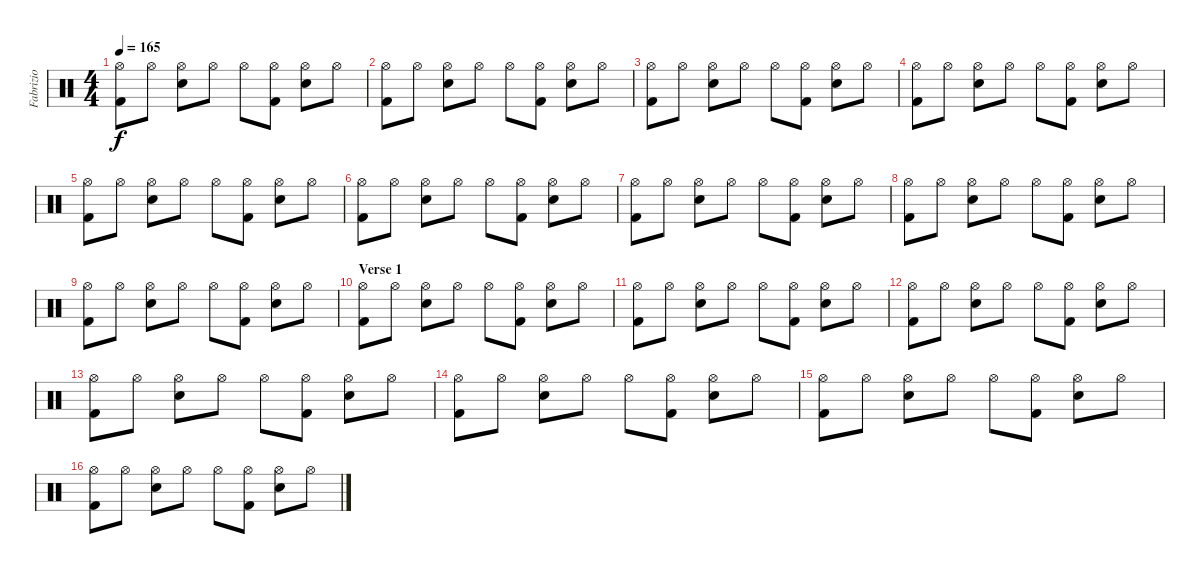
\track ("Fabrizio" "Fabrizio") {instrument percussion}
\staff {score}
\articulation defaults
\ts (4 4)
\tempo 165
\clef neutral
\ks c
("Kick (hit) 2" "Hi-Hat (open)").8{dy f} "Hi-Hat (open)".8 ("Snare (hit) 2" "Hi-Hat (open)").8 "Hi-Hat (open)".8 "Hi-Hat (open)".8 ("Kick (hit) 2" "Hi-Hat (open)").8 ("Snare (hit) 2" "Hi-Hat (open)").8 "Hi-Hat (open)".8 |
("Kick (hit) 2" "Hi-Hat (open)").8 "Hi-Hat (open)".8 ("Hi-Hat (open)" "Snare (hit) 2").8 "Hi-Hat (open)".8 "Hi-Hat (open)".8 ("Kick (hit) 2" "Hi-Hat (open)").8 ("Hi-Hat (open)" "Snare (hit) 2").8 "Hi-Hat (open)".8 |
("Kick (hit) 2" "Hi-Hat (open)").8 "Hi-Hat (open)".8 ("Snare (hit) 2" "Hi-Hat (open)").8 "Hi-Hat (open)".8 "Hi-Hat (open)".8 ("Kick (hit) 2" "Hi-Hat (open)").8 ("Snare (hit) 2" "Hi-Hat (open)").8 "Hi-Hat (open)".8 |
("Kick (hit) 2" "Hi-Hat (open)").8 "Hi-Hat (open)".8 ("Snare (hit) 2" "Hi-Hat (open)").8 "Hi-Hat (open)".8 "Hi-Hat (open)".8 ("Kick (hit) 2" "Hi-Hat (open)").8 ("Snare (hit) 2" "Hi-Hat (open)").8 "Hi-Hat (open)".8 |
("Kick (hit) 2" "Hi-Hat (open)").8 "Hi-Hat (open)".8 ("Snare (hit) 2" "Hi-Hat (open)").8 "Hi-Hat (open)".8 "Hi-Hat (open)".8 ("Kick (hit) 2" "Hi-Hat (open)").8 ("Snare (hit) 2" "Hi-Hat (open)").8 "Hi-Hat (open)".8 |
("Kick (hit) 2" "Hi-Hat (open)").8 "Hi-Hat (open)".8 ("Snare (hit) 2" "Hi-Hat (open)").8 "Hi-Hat (open)".8 "Hi-Hat (open)".8 ("Kick (hit) 2" "Hi-Hat (open)").8 ("Snare (hit) 2" "Hi-Hat (open)").8 "Hi-Hat (open)".8 |
("Kick (hit) 2" "Hi-Hat (open)").8 "Hi-Hat (open)".8 ("Snare (hit) 2" "Hi-Hat (open)").8 "Hi-Hat (open)".8 "Hi-Hat (open)".8 ("Kick (hit) 2" "Hi-Hat (open)").8 ("Snare (hit) 2" "Hi-Hat (open)").8 "Hi-Hat (open)".8 |
("Kick (hit) 2" "Hi-Hat (open)").8 "Hi-Hat (open)".8 ("Snare (hit) 2" "Hi-Hat (open)").8 "Hi-Hat (open)".8 "Hi-Hat (open)".8 ("Kick (hit) 2" "Hi-Hat (open)").8 ("Snare (hit) 2" "Hi-Hat (open)").8 "Hi-Hat (open)".8 |
("Kick (hit) 2" "Hi-Hat (open)").8 "Hi-Hat (open)".8 ("Snare (hit) 2" "Hi-Hat (open)").8 "Hi-Hat (open)".8 "Hi-Hat (open)".8 ("Kick (hit) 2" "Hi-Hat (open)").8 ("Snare (hit) 2" "Hi-Hat (open)").8 "Hi-Hat (open)".8 |
\section ("" "Verse 1")
("Kick (hit) 2" "Hi-Hat (open)").8 "Hi-Hat (open)".8 ("Snare (hit) 2" "Hi-Hat (open)").8 "Hi-Hat (open)".8 "Hi-Hat (open)".8 ("Kick (hit) 2" "Hi-Hat (open)").8 ("Snare (hit) 2" "Hi-Hat (open)").8 "Hi-Hat (open)".8 |
("Kick (hit) 2" "Hi-Hat (open)").8 "Hi-Hat (open)".8 ("Snare (hit) 2" "Hi-Hat (open)").8 "Hi-Hat (open)".8 "Hi-Hat (open)".8 ("Kick (hit) 2" "Hi-Hat (open)").8 ("Snare (hit) 2" "Hi-Hat (open)").8 "Hi-Hat (open)".8 |
("Kick (hit) 2" "Hi-Hat (open)").8 "Hi-Hat (open)".8 ("Snare (hit) 2" "Hi-Hat (open)").8 "Hi-Hat (open)".8 "Hi-Hat (open)".8 ("Kick (hit) 2" "Hi-Hat (open)").8 ("Snare (hit) 2" "Hi-Hat (open)").8 "Hi-Hat (open)".8 |
("Kick (hit) 2" "Hi-Hat (open)").8 "Hi-Hat (open)".8 ("Snare (hit) 2" "Hi-Hat (open)").8 "Hi-Hat (open)".8 "Hi-Hat (open)".8 ("Kick (hit) 2" "Hi-Hat (open)").8 ("Snare (hit) 2" "Hi-Hat (open)").8 "Hi-Hat (open)".8 |
("Kick (hit) 2" "Hi-Hat (open)").8 "Hi-Hat (open)".8 ("Snare (hit) 2" "Hi-Hat (open)").8 "Hi-Hat (open)".8 "Hi-Hat (open)".8 ("Kick (hit) 2" "Hi-Hat (open)").8 ("Snare (hit) 2" "Hi-Hat (open)").8 "Hi-Hat (open)".8 |
("Kick (hit) 2" "Hi-Hat (open)").8 "Hi-Hat (open)".8 ("Snare (hit) 2" "Hi-Hat (open)").8 "Hi-Hat (open)".8 "Hi-Hat (open)".8 ("Kick (hit) 2" "Hi-Hat (open)").8 ("Snare (hit) 2" "Hi-Hat (open)").8 "Hi-Hat (open)".8 |
("Kick (hit) 2" "Hi-Hat (open)").8 "Hi-Hat (open)".8 ("Snare (hit) 2" "Hi-Hat (open)").8 "Hi-Hat (open)".8 "Hi-Hat (open)".8 ("Kick (hit) 2" "Hi-Hat (open)").8 ("Snare (hit) 2" "Hi-Hat (open)").8 "Hi-Hat (open)".8
